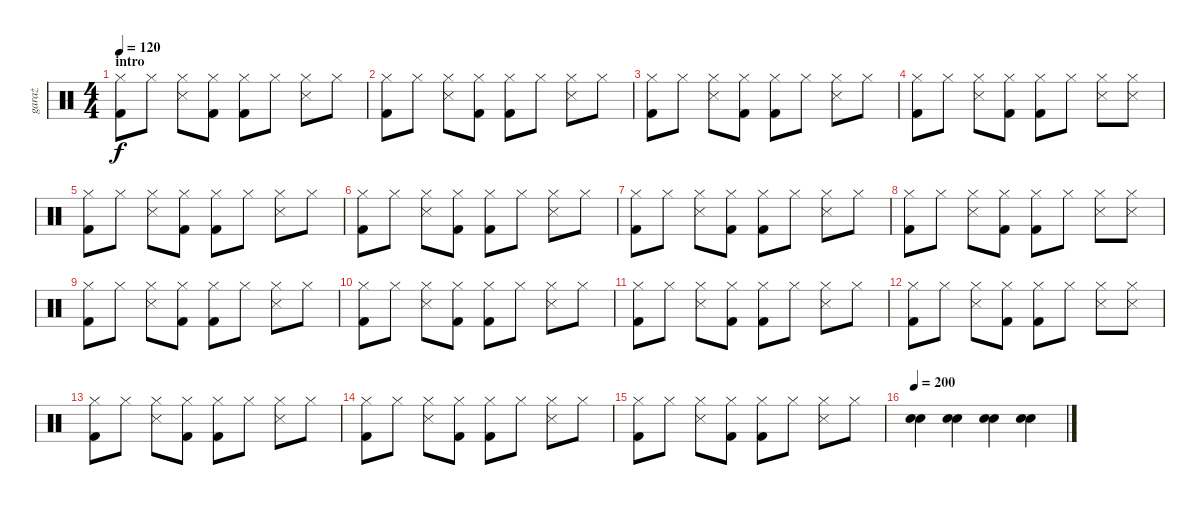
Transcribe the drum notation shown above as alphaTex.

\track ("garaż" "garaż") {instrument percussion}
\staff {score}
\articulation defaults
\ts (4 4)
\section ("" "intro")
\tempo 120
\clef neutral
\ks c
("Hi-Hat (closed)" "Kick (hit) 2").8{dy f} "Hi-Hat (closed)".8 ("Hi-Hat (closed)" "Snare (side stick) 3").8 ("Hi-Hat (closed)" "Kick (hit) 2").8 ("Hi-Hat (closed)" "Kick (hit) 2").8 "Hi-Hat (closed)".8 ("Hi-Hat (closed)" "Snare (side stick) 3").8 "Hi-Hat (closed)".8 |
("Hi-Hat (closed)" "Kick (hit) 2").8 "Hi-Hat (closed)".8 ("Hi-Hat (closed)" "Snare (side stick) 3").8 ("Hi-Hat (closed)" "Kick (hit) 2").8 ("Hi-Hat (closed)" "Kick (hit) 2").8 "Hi-Hat (closed)".8 ("Hi-Hat (closed)" "Snare (side stick) 3").8 "Hi-Hat (closed)".8 |
("Hi-Hat (closed)" "Kick (hit) 2").8 "Hi-Hat (closed)".8 ("Hi-Hat (closed)" "Snare (side stick) 3").8 ("Hi-Hat (closed)" "Kick (hit) 2").8 ("Hi-Hat (closed)" "Kick (hit) 2").8 "Hi-Hat (closed)".8 ("Hi-Hat (closed)" "Snare (side stick) 3").8 "Hi-Hat (closed)".8 |
("Hi-Hat (closed)" "Kick (hit) 2").8 "Hi-Hat (closed)".8 ("Hi-Hat (closed)" "Snare (side stick) 3").8 ("Hi-Hat (closed)" "Kick (hit) 2").8 ("Hi-Hat (closed)" "Kick (hit) 2").8 "Hi-Hat (closed)".8 ("Hi-Hat (closed)" "Snare (side stick) 3").8 ("Hi-Hat (closed)" "Snare (side stick) 3").8 |
("Hi-Hat (closed)" "Kick (hit) 2").8 "Hi-Hat (closed)".8 ("Hi-Hat (closed)" "Snare (side stick) 3").8 ("Hi-Hat (closed)" "Kick (hit) 2").8 ("Hi-Hat (closed)" "Kick (hit) 2").8 "Hi-Hat (closed)".8 ("Hi-Hat (closed)" "Snare (side stick) 3").8 "Hi-Hat (closed)".8 |
("Hi-Hat (closed)" "Kick (hit) 2").8 "Hi-Hat (closed)".8 ("Hi-Hat (closed)" "Snare (side stick) 3").8 ("Hi-Hat (closed)" "Kick (hit) 2").8 ("Hi-Hat (closed)" "Kick (hit) 2").8 "Hi-Hat (closed)".8 ("Hi-Hat (closed)" "Snare (side stick) 3").8 "Hi-Hat (closed)".8 |
("Hi-Hat (closed)" "Kick (hit) 2").8 "Hi-Hat (closed)".8 ("Hi-Hat (closed)" "Snare (side stick) 3").8 ("Hi-Hat (closed)" "Kick (hit) 2").8 ("Hi-Hat (closed)" "Kick (hit) 2").8 "Hi-Hat (closed)".8 ("Hi-Hat (closed)" "Snare (side stick) 3").8 "Hi-Hat (closed)".8 |
("Hi-Hat (closed)" "Kick (hit) 2").8 "Hi-Hat (closed)".8 ("Hi-Hat (closed)" "Snare (side stick) 3").8 ("Hi-Hat (closed)" "Kick (hit) 2").8 ("Hi-Hat (closed)" "Kick (hit) 2").8 "Hi-Hat (closed)".8 ("Hi-Hat (closed)" "Snare (side stick) 3").8 ("Hi-Hat (closed)" "Snare (side stick) 3").8 |
("Hi-Hat (closed)" "Kick (hit) 2").8 "Hi-Hat (closed)".8 ("Hi-Hat (closed)" "Snare (side stick) 3").8 ("Hi-Hat (closed)" "Kick (hit) 2").8 ("Hi-Hat (closed)" "Kick (hit) 2").8 "Hi-Hat (closed)".8 ("Hi-Hat (closed)" "Snare (side stick) 3").8 "Hi-Hat (closed)".8 |
("Hi-Hat (closed)" "Kick (hit) 2").8 "Hi-Hat (closed)".8 ("Hi-Hat (closed)" "Snare (side stick) 3").8 ("Hi-Hat (closed)" "Kick (hit) 2").8 ("Hi-Hat (closed)" "Kick (hit) 2").8 "Hi-Hat (closed)".8 ("Hi-Hat (closed)" "Snare (side stick) 3").8 "Hi-Hat (closed)".8 |
("Hi-Hat (closed)" "Kick (hit) 2").8 "Hi-Hat (closed)".8 ("Hi-Hat (closed)" "Snare (side stick) 3").8 ("Hi-Hat (closed)" "Kick (hit) 2").8 ("Hi-Hat (closed)" "Kick (hit) 2").8 "Hi-Hat (closed)".8 ("Hi-Hat (closed)" "Snare (side stick) 3").8 "Hi-Hat (closed)".8 |
("Hi-Hat (closed)" "Kick (hit) 2").8 "Hi-Hat (closed)".8 ("Hi-Hat (closed)" "Snare (side stick) 3").8 ("Hi-Hat (closed)" "Kick (hit) 2").8 ("Hi-Hat (closed)" "Kick (hit) 2").8 "Hi-Hat (closed)".8 ("Hi-Hat (closed)" "Snare (side stick) 3").8 ("Hi-Hat (closed)" "Snare (side stick) 3").8 |
("Hi-Hat (closed)" "Kick (hit) 2").8 "Hi-Hat (closed)".8 ("Hi-Hat (closed)" "Snare (side stick) 3").8 ("Hi-Hat (closed)" "Kick (hit) 2").8 ("Hi-Hat (closed)" "Kick (hit) 2").8 "Hi-Hat (closed)".8 ("Hi-Hat (closed)" "Snare (side stick) 3").8 "Hi-Hat (closed)".8 |
("Hi-Hat (closed)" "Kick (hit) 2").8 "Hi-Hat (closed)".8 ("Hi-Hat (closed)" "Snare (side stick) 3").8 ("Hi-Hat (closed)" "Kick (hit) 2").8 ("Hi-Hat (closed)" "Kick (hit) 2").8 "Hi-Hat (closed)".8 ("Hi-Hat (closed)" "Snare (side stick) 3").8 "Hi-Hat (closed)".8 |
("Hi-Hat (closed)" "Kick (hit) 2").8 "Hi-Hat (closed)".8 ("Hi-Hat (closed)" "Snare (side stick) 3").8 ("Hi-Hat (closed)" "Kick (hit) 2").8 ("Hi-Hat (closed)" "Kick (hit) 2").8 "Hi-Hat (closed)".8 ("Hi-Hat (closed)" "Snare (side stick) 3").8 "Hi-Hat (closed)".8 |
\tempo 200
("Snare (hit) 2" "Snare (hit) 2").4 ("Snare (hit) 2" "Snare (hit) 2").4 ("Snare (hit) 2" "Snare (hit) 2").4 ("Snare (hit) 2" "Snare (hit) 2").4
